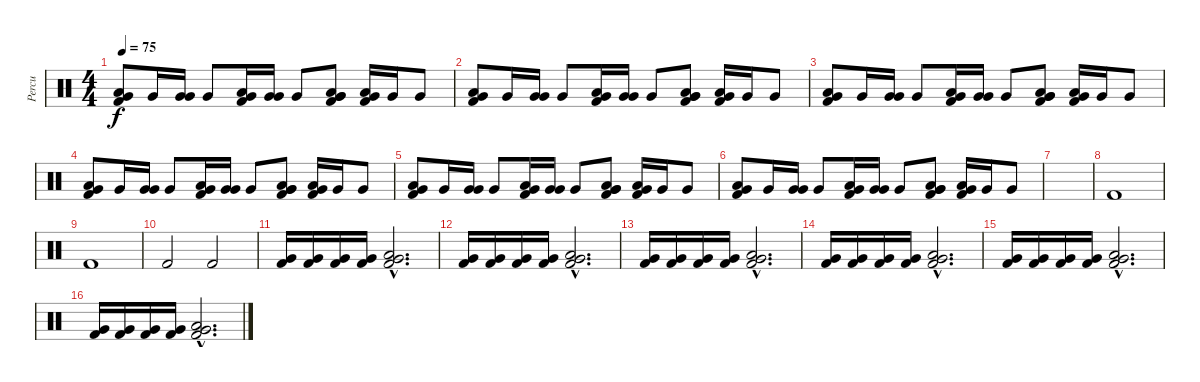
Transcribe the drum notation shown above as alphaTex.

\track ("Percu" "Percu") {instrument percussion}
\staff {score}
\articulation defaults
\ts (4 4)
\tempo 75
\clef neutral
\ks c
("Low Floor Tom (hit)" "Very Low Tom (hit)" "Kick (hit) 2").8{dy f} "Very Low Tom (hit)".16 ("Very Low Tom (hit)" "Very Low Tom (hit)").16 "Very Low Tom (hit)".8 ("Low Floor Tom (hit)" "Very Low Tom (hit)" "Kick (hit) 2").16 ("Very Low Tom (hit)" "Very Low Tom (hit)").16 "Very Low Tom (hit)".8 ("Very Low Tom (hit)" "Low Floor Tom (hit)" "Very Low Tom (hit)" "Kick (hit) 2").8 ("Low Floor Tom (hit)" "Very Low Tom (hit)" "Kick (hit) 2").16 "Very Low Tom (hit)".16 "Very Low Tom (hit)".8 |
("Low Floor Tom (hit)" "Very Low Tom (hit)" "Kick (hit) 2").8 "Very Low Tom (hit)".16 ("Very Low Tom (hit)" "Very Low Tom (hit)").16 "Very Low Tom (hit)".8 ("Low Floor Tom (hit)" "Very Low Tom (hit)" "Kick (hit) 2").16 ("Very Low Tom (hit)" "Very Low Tom (hit)").16 "Very Low Tom (hit)".8 ("Very Low Tom (hit)" "Low Floor Tom (hit)" "Very Low Tom (hit)" "Kick (hit) 2").8 ("Low Floor Tom (hit)" "Very Low Tom (hit)" "Kick (hit) 2").16 "Very Low Tom (hit)".16 "Very Low Tom (hit)".8 |
("Low Floor Tom (hit)" "Very Low Tom (hit)" "Kick (hit) 2").8 "Very Low Tom (hit)".16 ("Very Low Tom (hit)" "Very Low Tom (hit)").16 "Very Low Tom (hit)".8 ("Low Floor Tom (hit)" "Very Low Tom (hit)" "Kick (hit) 2").16 ("Very Low Tom (hit)" "Very Low Tom (hit)").16 "Very Low Tom (hit)".8 ("Very Low Tom (hit)" "Low Floor Tom (hit)" "Very Low Tom (hit)" "Kick (hit) 2").8 ("Low Floor Tom (hit)" "Very Low Tom (hit)" "Kick (hit) 2").16 "Very Low Tom (hit)".16 "Very Low Tom (hit)".8 |
("Low Floor Tom (hit)" "Very Low Tom (hit)" "Kick (hit) 2").8 "Very Low Tom (hit)".16 ("Very Low Tom (hit)" "Very Low Tom (hit)").16 "Very Low Tom (hit)".8 ("Low Floor Tom (hit)" "Very Low Tom (hit)" "Kick (hit) 2").16 ("Very Low Tom (hit)" "Very Low Tom (hit)").16 "Very Low Tom (hit)".8 ("Very Low Tom (hit)" "Low Floor Tom (hit)" "Very Low Tom (hit)" "Kick (hit) 2").8 ("Low Floor Tom (hit)" "Very Low Tom (hit)" "Kick (hit) 2").16 "Very Low Tom (hit)".16 "Very Low Tom (hit)".8 |
("Low Floor Tom (hit)" "Very Low Tom (hit)" "Kick (hit) 2").8 "Very Low Tom (hit)".16 ("Very Low Tom (hit)" "Very Low Tom (hit)").16 "Very Low Tom (hit)".8 ("Low Floor Tom (hit)" "Very Low Tom (hit)" "Kick (hit) 2").16 ("Very Low Tom (hit)" "Very Low Tom (hit)").16 "Very Low Tom (hit)".8 ("Very Low Tom (hit)" "Low Floor Tom (hit)" "Very Low Tom (hit)" "Kick (hit) 2").8 ("Low Floor Tom (hit)" "Very Low Tom (hit)" "Kick (hit) 2").16 "Very Low Tom (hit)".16 "Very Low Tom (hit)".8 |
("Low Floor Tom (hit)" "Very Low Tom (hit)" "Kick (hit) 2").8 "Very Low Tom (hit)".16 ("Very Low Tom (hit)" "Very Low Tom (hit)").16 "Very Low Tom (hit)".8 ("Low Floor Tom (hit)" "Very Low Tom (hit)" "Kick (hit) 2").16 ("Very Low Tom (hit)" "Very Low Tom (hit)").16 "Very Low Tom (hit)".8 ("Very Low Tom (hit)" "Low Floor Tom (hit)" "Very Low Tom (hit)" "Kick (hit) 2").8 ("Low Floor Tom (hit)" "Very Low Tom (hit)" "Kick (hit) 2").16 "Very Low Tom (hit)".16 "Very Low Tom (hit)".8 |
|
"Kick (hit) 2".1 |
"Kick (hit) 2".1 |
"Kick (hit) 2".2 "Kick (hit) 2".2 |
("Kick (hit) 2" "Very Low Tom (hit)").16 ("Kick (hit) 2" "Very Low Tom (hit)").16 ("Kick (hit) 2" "Very Low Tom (hit)").16 ("Kick (hit) 2" "Very Low Tom (hit)").16 ("Very Low Tom (hit)"{hac} "Low Floor Tom (hit)"{hac} "Kick (hit) 2"{hac}).2{d} |
("Kick (hit) 2" "Very Low Tom (hit)").16 ("Kick (hit) 2" "Very Low Tom (hit)").16 ("Kick (hit) 2" "Very Low Tom (hit)").16 ("Kick (hit) 2" "Very Low Tom (hit)").16 ("Very Low Tom (hit)"{hac} "Low Floor Tom (hit)"{hac} "Kick (hit) 2"{hac}).2{d} |
("Kick (hit) 2" "Very Low Tom (hit)").16 ("Kick (hit) 2" "Very Low Tom (hit)").16 ("Kick (hit) 2" "Very Low Tom (hit)").16 ("Kick (hit) 2" "Very Low Tom (hit)").16 ("Very Low Tom (hit)"{hac} "Low Floor Tom (hit)"{hac} "Kick (hit) 2"{hac}).2{d} |
("Kick (hit) 2" "Very Low Tom (hit)").16 ("Kick (hit) 2" "Very Low Tom (hit)").16 ("Kick (hit) 2" "Very Low Tom (hit)").16 ("Kick (hit) 2" "Very Low Tom (hit)").16 ("Very Low Tom (hit)"{hac} "Low Floor Tom (hit)"{hac} "Kick (hit) 2"{hac}).2{d} |
("Kick (hit) 2" "Very Low Tom (hit)").16 ("Kick (hit) 2" "Very Low Tom (hit)").16 ("Kick (hit) 2" "Very Low Tom (hit)").16 ("Kick (hit) 2" "Very Low Tom (hit)").16 ("Very Low Tom (hit)"{hac} "Low Floor Tom (hit)"{hac} "Kick (hit) 2"{hac}).2{d} |
("Kick (hit) 2" "Very Low Tom (hit)").16 ("Kick (hit) 2" "Very Low Tom (hit)").16 ("Kick (hit) 2" "Very Low Tom (hit)").16 ("Kick (hit) 2" "Very Low Tom (hit)").16 ("Very Low Tom (hit)"{hac} "Low Floor Tom (hit)"{hac} "Kick (hit) 2"{hac}).2{d}
